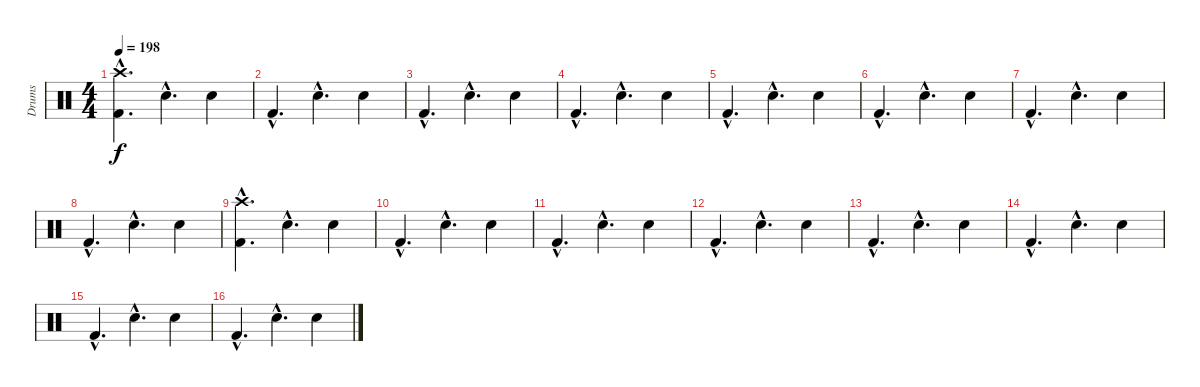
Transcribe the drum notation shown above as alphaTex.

\track ("Drums" "Drums") {instrument percussion}
\staff {score}
\articulation defaults
\ts (4 4)
\tempo 198
\clef neutral
\ks c
("Crash high (hit)"{hac} "Kick (hit) 2"{hac}).4{d dy f} "Snare (hit) 2"{hac}.4{d} "Snare (hit) 2".4 |
"Kick (hit) 2"{hac}.4{d} "Snare (hit) 2"{hac}.4{d} "Snare (hit) 2".4 |
"Kick (hit) 2"{hac}.4{d} "Snare (hit) 2"{hac}.4{d} "Snare (hit) 2".4 |
"Kick (hit) 2"{hac}.4{d} "Snare (hit) 2"{hac}.4{d} "Snare (hit) 2".4 |
"Kick (hit) 2"{hac}.4{d} "Snare (hit) 2"{hac}.4{d} "Snare (hit) 2".4 |
"Kick (hit) 2"{hac}.4{d} "Snare (hit) 2"{hac}.4{d} "Snare (hit) 2".4 |
"Kick (hit) 2"{hac}.4{d} "Snare (hit) 2"{hac}.4{d} "Snare (hit) 2".4 |
"Kick (hit) 2"{hac}.4{d} "Snare (hit) 2"{hac}.4{d} "Snare (hit) 2".4 |
("Crash high (hit)"{hac} "Kick (hit) 2"{hac}).4{d} "Snare (hit) 2"{hac}.4{d} "Snare (hit) 2".4 |
"Kick (hit) 2"{hac}.4{d} "Snare (hit) 2"{hac}.4{d} "Snare (hit) 2".4 |
"Kick (hit) 2"{hac}.4{d} "Snare (hit) 2"{hac}.4{d} "Snare (hit) 2".4 |
"Kick (hit) 2"{hac}.4{d} "Snare (hit) 2"{hac}.4{d} "Snare (hit) 2".4 |
"Kick (hit) 2"{hac}.4{d} "Snare (hit) 2"{hac}.4{d} "Snare (hit) 2".4 |
"Kick (hit) 2"{hac}.4{d} "Snare (hit) 2"{hac}.4{d} "Snare (hit) 2".4 |
"Kick (hit) 2"{hac}.4{d} "Snare (hit) 2"{hac}.4{d} "Snare (hit) 2".4 |
"Kick (hit) 2"{hac}.4{d} "Snare (hit) 2"{hac}.4{d} "Snare (hit) 2".4
